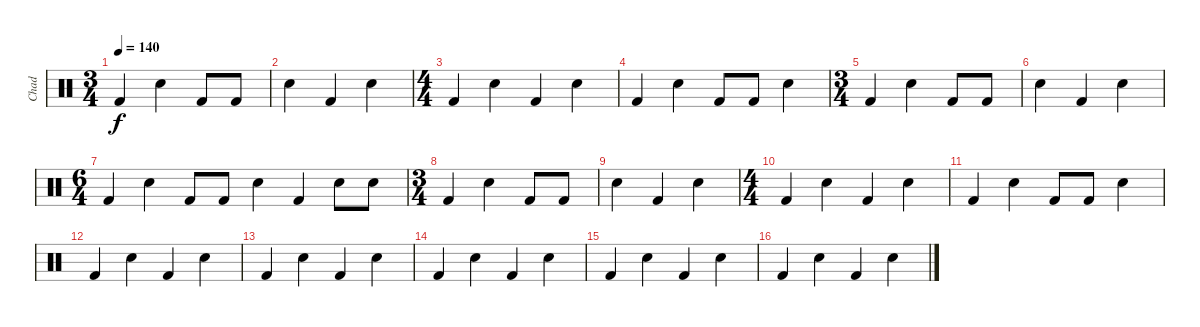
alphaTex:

\track ("Chad" "Chad") {instrument percussion}
\staff {score}
\articulation defaults
\ts (3 4)
\tempo 140
\clef neutral
\ks c "Kick (hit) 2".4{dy f} "Electric Snare (hit)".4 "Kick (hit) 2".8 "Kick (hit) 2".8
|
"Electric Snare (hit)".4 "Kick (hit) 2".4 "Electric Snare (hit)".4 |
\ts (4 4)
"Kick (hit) 2".4 "Electric Snare (hit)".4 "Kick (hit) 2".4 "Electric Snare (hit)".4 |
"Kick (hit) 2".4 "Electric Snare (hit)".4 "Kick (hit) 2".8 "Kick (hit) 2".8 "Electric Snare (hit)".4 |
\ts (3 4)
"Kick (hit) 2".4 "Electric Snare (hit)".4 "Kick (hit) 2".8 "Kick (hit) 2".8 |
"Electric Snare (hit)".4 "Kick (hit) 2".4 "Electric Snare (hit)".4 |
\ts (6 4)
"Kick (hit) 2".4 "Electric Snare (hit)".4 "Kick (hit) 2".8 "Kick (hit) 2".8 "Electric Snare (hit)".4 "Kick (hit) 2".4 "Electric Snare (hit)".8 "Electric Snare (hit)".8 |
\ts (3 4)
"Kick (hit) 2".4 "Electric Snare (hit)".4 "Kick (hit) 2".8 "Kick (hit) 2".8 |
"Electric Snare (hit)".4 "Kick (hit) 2".4 "Electric Snare (hit)".4 |
\ts (4 4)
"Kick (hit) 2".4 "Electric Snare (hit)".4 "Kick (hit) 2".4 "Electric Snare (hit)".4 |
"Kick (hit) 2".4 "Electric Snare (hit)".4 "Kick (hit) 2".8 "Kick (hit) 2".8 "Electric Snare (hit)".4 |
"Kick (hit) 2".4 "Electric Snare (hit)".4 "Kick (hit) 2".4 "Electric Snare (hit)".4 |
"Kick (hit) 2".4 "Electric Snare (hit)".4 "Kick (hit) 2".4 "Electric Snare (hit)".4 |
"Kick (hit) 2".4 "Electric Snare (hit)".4 "Kick (hit) 2".4 "Electric Snare (hit)".4 |
"Kick (hit) 2".4 "Electric Snare (hit)".4 "Kick (hit) 2".4 "Electric Snare (hit)".4 |
"Kick (hit) 2".4 "Electric Snare (hit)".4 "Kick (hit) 2".4 "Electric Snare (hit)".4
